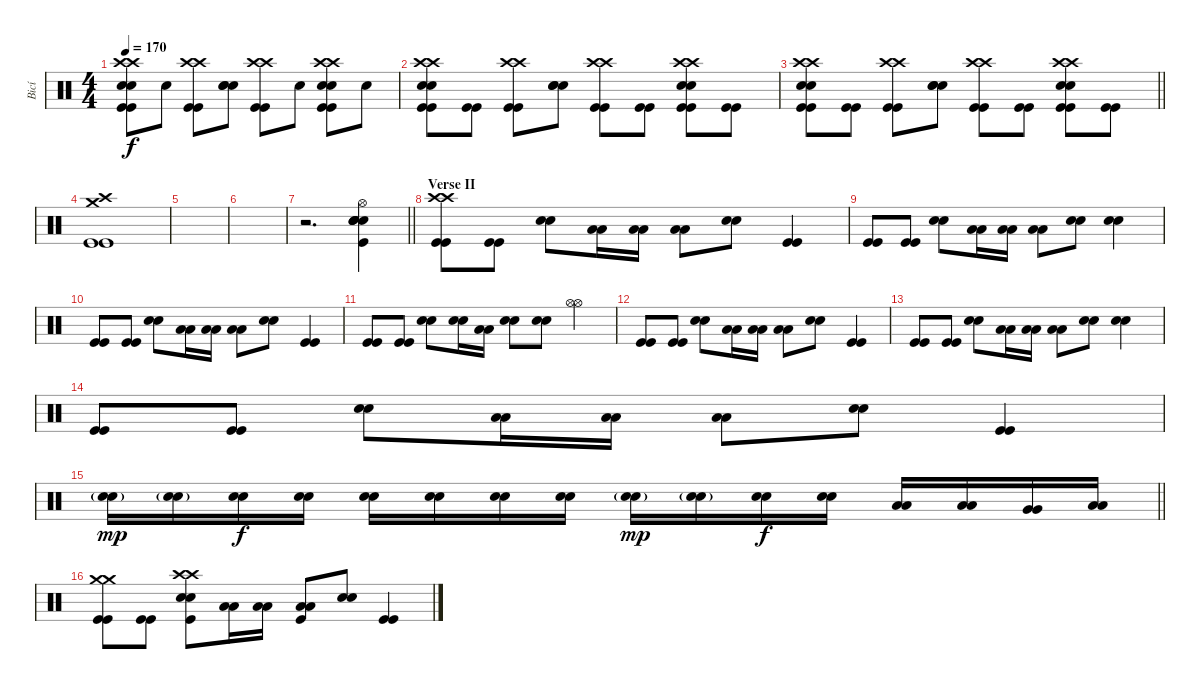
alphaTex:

\track ("Bicí" "Bicí") {instrument percussion}
\staff {score}
\articulation defaults
\ts (4 4)
\tempo 170
\clef neutral
\ks c
("Crash high (hit)" "Crash high (hit)" "Electric Snare (hit)" "Electric Snare (hit)" "Kick (hit)" "Kick (hit)").8{dy f} "Snare (hit)".8 ("Crash high (hit)" "Crash high (hit)" "Kick (hit)" "Kick (hit)").8 ("Electric Snare (hit)" "Electric Snare (hit)" "Snare (hit)").8 ("Crash high (hit)" "Crash high (hit)" "Kick (hit)" "Kick (hit)").8 "Snare (hit)".8 ("Crash high (hit)" "Crash high (hit)" "Electric Snare (hit)" "Electric Snare (hit)" "Kick (hit)" "Kick (hit)").8 "Snare (hit)".8 |
("Crash high (hit)" "Crash high (hit)" "Electric Snare (hit)" "Electric Snare (hit)" "Kick (hit)" "Kick (hit)").8 ("Kick (hit)" "Kick (hit)").8 ("Crash high (hit)" "Crash high (hit)" "Kick (hit)" "Kick (hit)").8 ("Electric Snare (hit)" "Electric Snare (hit)" "Snare (hit)").8 ("Crash high (hit)" "Crash high (hit)" "Kick (hit)" "Kick (hit)").8 ("Kick (hit)" "Kick (hit)").8 ("Crash high (hit)" "Crash high (hit)" "Electric Snare (hit)" "Electric Snare (hit)" "Kick (hit)" "Kick (hit)").8 ("Kick (hit)" "Kick (hit)").8 |
\barLineRight lightlight
("Crash high (hit)" "Crash high (hit)" "Electric Snare (hit)" "Electric Snare (hit)" "Kick (hit)" "Kick (hit)").8 ("Kick (hit)" "Kick (hit)").8 ("Crash high (hit)" "Crash high (hit)" "Kick (hit)" "Kick (hit)").8 ("Electric Snare (hit)" "Electric Snare (hit)" "Snare (hit)").8 ("Crash high (hit)" "Crash high (hit)" "Kick (hit)" "Kick (hit)").8 ("Kick (hit)" "Kick (hit)").8 ("Crash high (hit)" "Crash high (hit)" "Electric Snare (hit)" "Electric Snare (hit)" "Kick (hit)" "Kick (hit)").8 ("Kick (hit)" "Kick (hit)").8 |
\section ("" "")
("Crash high (hit)" "Crash medium (hit)" "Kick (hit)" "Kick (hit)").1 |
|
|
\barLineRight lightlight
r.2{d} ("Hand Clap (hit)" "Hand Clap (hit)" "Hi-Hat (open)" "Kick (hit)" "Electric Snare (hit)" "Electric Snare (hit)").4 |
\section ("" "Verse II")
("Crash high (hit)" "Crash high (hit)" "Kick (hit)" "Kick (hit)").8 ("Kick (hit)" "Kick (hit)").8 ("Electric Snare (hit)" "Electric Snare (hit)").8 ("Low Tom (hit)" "Low Tom (hit)").16 ("Low Tom (hit)" "Low Tom (hit)").16 ("Low Tom (hit)" "Low Tom (hit)").8 ("Electric Snare (hit)" "Electric Snare (hit)").8 ("Kick (hit)" "Kick (hit)").4 |
("Kick (hit)" "Kick (hit)").8 ("Kick (hit)" "Kick (hit)").8 ("Electric Snare (hit)" "Electric Snare (hit)").8 ("Low Tom (hit)" "Low Tom (hit)").16 ("Low Tom (hit)" "Low Tom (hit)").16 ("Low Tom (hit)" "Low Tom (hit)").8 ("Electric Snare (hit)" "Electric Snare (hit)").8 ("Electric Snare (hit)" "Electric Snare (hit)").4 |
("Kick (hit)" "Kick (hit)").8 ("Kick (hit)" "Kick (hit)").8 ("Electric Snare (hit)" "Electric Snare (hit)").8 ("Low Tom (hit)" "Low Tom (hit)").16 ("Low Tom (hit)" "Low Tom (hit)").16 ("Low Tom (hit)" "Low Tom (hit)").8 ("Electric Snare (hit)" "Electric Snare (hit)").8 ("Kick (hit)" "Kick (hit)").4 |
("Kick (hit)" "Kick (hit)").8 ("Kick (hit)" "Kick (hit)").8 ("Electric Snare (hit)" "Electric Snare (hit)").8 ("Electric Snare (hit)" "Electric Snare (hit)").16 ("Low Tom (hit)" "Low Tom (hit)").16 ("Electric Snare (hit)" "Electric Snare (hit)").8 ("Electric Snare (hit)" "Electric Snare (hit)").8 ("Hi-Hat (open)" "Hi-Hat (open)").4 |
("Kick (hit)" "Kick (hit)").8 ("Kick (hit)" "Kick (hit)").8 ("Electric Snare (hit)" "Electric Snare (hit)").8 ("Low Tom (hit)" "Low Tom (hit)").16 ("Low Tom (hit)" "Low Tom (hit)").16 ("Low Tom (hit)" "Low Tom (hit)").8 ("Electric Snare (hit)" "Electric Snare (hit)").8 ("Kick (hit)" "Kick (hit)").4 |
("Kick (hit)" "Kick (hit)").8 ("Kick (hit)" "Kick (hit)").8 ("Electric Snare (hit)" "Electric Snare (hit)").8 ("Low Tom (hit)" "Low Tom (hit)").16 ("Low Tom (hit)" "Low Tom (hit)").16 ("Low Tom (hit)" "Low Tom (hit)").8 ("Electric Snare (hit)" "Electric Snare (hit)").8 ("Electric Snare (hit)" "Electric Snare (hit)").4 |
("Kick (hit)" "Kick (hit)").8 ("Kick (hit)" "Kick (hit)").8 ("Electric Snare (hit)" "Electric Snare (hit)").8 ("Low Tom (hit)" "Low Tom (hit)").16 ("Low Tom (hit)" "Low Tom (hit)").16 ("Low Tom (hit)" "Low Tom (hit)").8 ("Electric Snare (hit)" "Electric Snare (hit)").8 ("Kick (hit)" "Kick (hit)").4 |
\barLineRight lightlight
("Electric Snare (hit)"{g} "Electric Snare (hit)"{g}).16{dy mp} ("Electric Snare (hit)"{g} "Electric Snare (hit)"{g}).16 ("Electric Snare (hit)" "Electric Snare (hit)").16{dy f} ("Electric Snare (hit)" "Electric Snare (hit)").16 ("Electric Snare (hit)" "Electric Snare (hit)").16 ("Electric Snare (hit)" "Electric Snare (hit)").16 ("Electric Snare (hit)" "Electric Snare (hit)").16 ("Electric Snare (hit)" "Electric Snare (hit)").16 ("Electric Snare (hit)"{g} "Electric Snare (hit)"{g}).16{dy mp} ("Electric Snare (hit)"{g} "Electric Snare (hit)"{g}).16 ("Electric Snare (hit)" "Electric Snare (hit)").16{dy f} ("Electric Snare (hit)" "Electric Snare (hit)").16 ("Low Tom (hit)" "Low Tom (hit)").16 ("Low Tom (hit)" "Low Tom (hit)").16 ("Very Low Tom (hit)" "Very Low Tom (hit)").16 ("Low Floor Tom (hit)" "Low Floor Tom (hit)").16 |
("Crash medium (hit)" "Crash medium (hit)" "Kick (hit)" "Kick (hit)").8 ("Kick (hit)" "Kick (hit)").8 ("Crash high (hit)" "Crash high (hit)" "Electric Snare (hit)" "Electric Snare (hit)" "Kick (hit)").8 ("Low Tom (hit)" "Low Tom (hit)").16 ("Low Tom (hit)" "Low Tom (hit)").16 ("Low Tom (hit)" "Low Tom (hit)" "Kick (hit)").8 ("Electric Snare (hit)" "Electric Snare (hit)").8 ("Kick (hit)" "Kick (hit)").4
